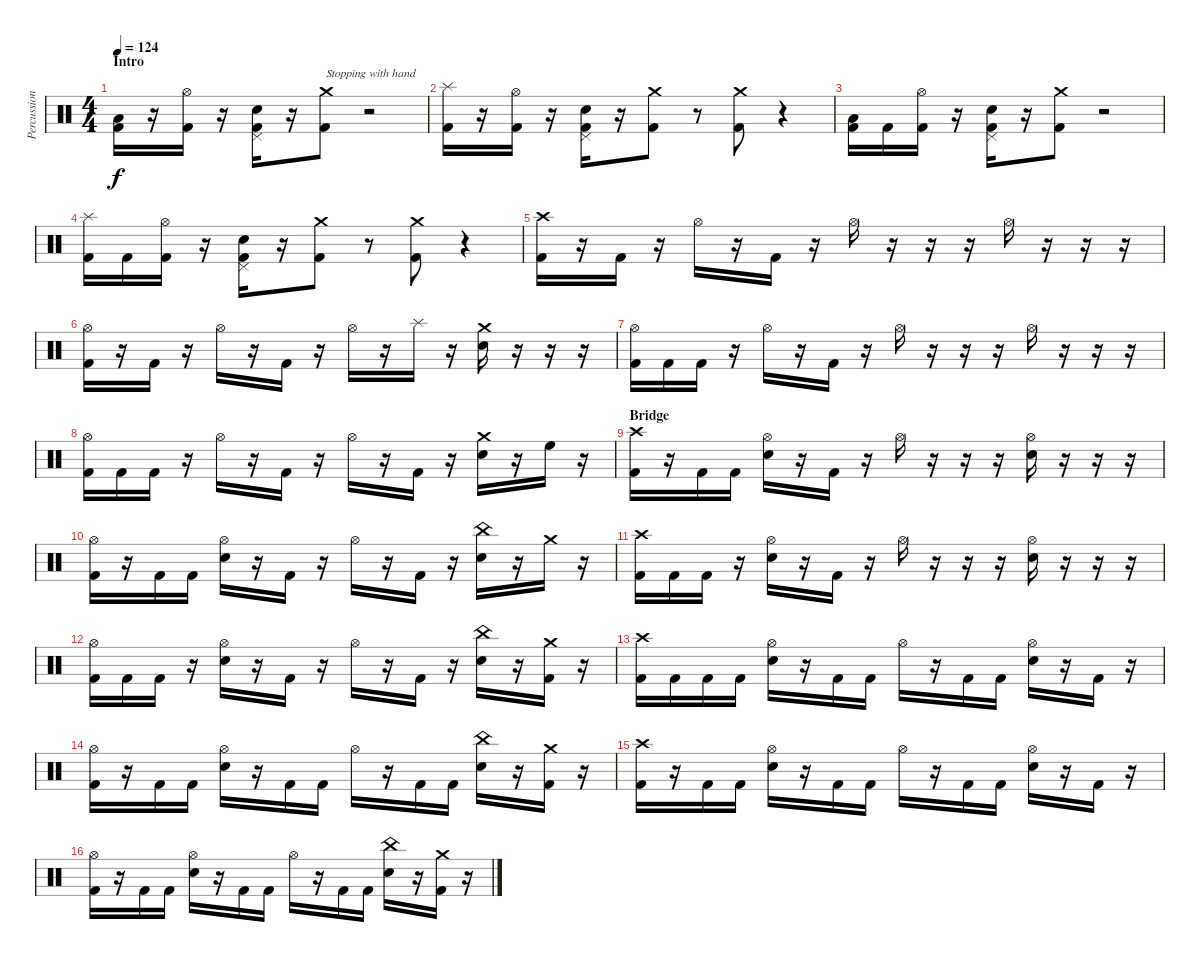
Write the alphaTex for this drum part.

\track ("Percussion" "Percussion") {instrument percussion}
\staff {score}
\articulation defaults
\ts (4 4)
\section ("" "Intro")
\tempo 124
\clef neutral
\ks c
("Low Tom (hit)" "Kick (hit) 2").16{dy f} r.16 ("Hi-Hat (open)" "Kick (hit) 2").16 r.16 ("Pedal Hi-Hat (hit)" "Snare (hit) 2" "Kick (hit) 2").16 r.16 ("Crash medium (hit)" "Kick (hit) 2").8{txt "Stopping with hand"} r.2{volume 0} |
("Splash (hit)" "Kick (hit) 2").16{volume 13} r.16 ("Hi-Hat (open)" "Kick (hit) 2").16 r.16 ("Pedal Hi-Hat (hit)" "Snare (hit) 2" "Kick (hit) 2").16 r.16 ("Crash medium (hit)" "Kick (hit) 2").8 r.8 ("Crash medium (hit)" "Kick (hit) 2").8 r.4{volume 0} |
("Low Tom (hit)" "Kick (hit) 2").16{volume 13} "Kick (hit) 2".16 ("Hi-Hat (open)" "Kick (hit) 2").16 r.16 ("Pedal Hi-Hat (hit)" "Snare (hit) 2" "Kick (hit) 2").16 r.16 ("Crash medium (hit)" "Kick (hit) 2").8 r.2{volume 0} |
("Splash (hit)" "Kick (hit) 2").16{volume 13} "Kick (hit) 2".16 ("Hi-Hat (open)" "Kick (hit) 2").16 r.16 ("Pedal Hi-Hat (hit)" "Snare (hit) 2" "Kick (hit) 2").16 r.16 ("Crash medium (hit)" "Kick (hit) 2").8 r.8 ("Crash medium (hit)" "Kick (hit) 2").8 r.4{volume 0} |
("Crash high (hit)" "Kick (hit) 2").16{volume 13} r.16 "Kick (hit) 2".16 r.16 "Hi-Hat (open)".16 r.16 "Kick (hit) 2".16 r.16 "Hi-Hat (open)".16 r.16 r.16 r.16 "Hi-Hat (open)".16 r.16 r.16 r.16 |
("Hi-Hat (open)" "Kick (hit) 2").16 r.16 "Kick (hit) 2".16 r.16 "Hi-Hat (open)".16 r.16 "Kick (hit) 2".16 r.16 "Hi-Hat (open)".16 r.16 "Splash (hit)".16 r.16 ("Crash medium (hit)" "Snare (hit) 2").16 r.16 r.16 r.16 |
("Hi-Hat (open)" "Kick (hit) 2").16 "Kick (hit) 2".16 "Kick (hit) 2".16 r.16 "Hi-Hat (open)".16 r.16 "Kick (hit) 2".16 r.16 "Hi-Hat (open)".16 r.16 r.16 r.16 "Hi-Hat (open)".16 r.16 r.16 r.16 |
("Hi-Hat (open)" "Kick (hit) 2").16 "Kick (hit) 2".16 "Kick (hit) 2".16 r.16 "Hi-Hat (open)".16 r.16 "Kick (hit) 2".16 r.16 "Hi-Hat (open)".16 r.16 "Kick (hit) 2".16 r.16 ("Crash medium (hit)" "Snare (hit) 2").16 r.16 "High Floor Tom (hit)".16 r.16 |
\section ("" "Bridge")
("Crash high (hit)" "Kick (hit) 2").16 r.16 "Kick (hit) 2".16 "Kick (hit) 2".16 ("Hi-Hat (open)" "Snare (hit) 2").16 r.16 "Kick (hit) 2".16 r.16 "Hi-Hat (open)".16 r.16 r.16 r.16 ("Hi-Hat (open)" "Snare (hit) 2").16 r.16 r.16 r.16 |
("Hi-Hat (open)" "Kick (hit) 2").16 r.16 "Kick (hit) 2".16 "Kick (hit) 2".16 ("Hi-Hat (open)" "Snare (hit) 2").16 r.16 "Kick (hit) 2".16 r.16 "Hi-Hat (open)".16 r.16 "Kick (hit) 2".16 r.16 ("China (hit)" "Snare (hit) 2").16 r.16 "Crash medium (hit)".16 r.16 |
("Crash high (hit)" "Kick (hit) 2").16 "Kick (hit) 2".16 "Kick (hit) 2".16 r.16 ("Hi-Hat (open)" "Snare (hit) 2").16 r.16 "Kick (hit) 2".16 r.16 "Hi-Hat (open)".16 r.16 r.16 r.16 ("Hi-Hat (open)" "Snare (hit) 2").16 r.16 r.16 r.16 |
("Hi-Hat (open)" "Kick (hit) 2").16 "Kick (hit) 2".16 "Kick (hit) 2".16 r.16 ("Hi-Hat (open)" "Snare (hit) 2").16 r.16 "Kick (hit) 2".16 r.16 "Hi-Hat (open)".16 r.16 "Kick (hit) 2".16 r.16 ("China (hit)" "Snare (hit) 2").16 r.16 ("Crash medium (hit)" "Kick (hit) 2").16 r.16 |
("Crash high (hit)" "Kick (hit) 2").16 "Kick (hit) 2".16 "Kick (hit) 2".16 "Kick (hit) 2".16 ("Hi-Hat (open)" "Snare (hit) 2").16 r.16 "Kick (hit) 2".16 "Kick (hit) 2".16 "Hi-Hat (open)".16 r.16 "Kick (hit) 2".16 "Kick (hit) 2".16 ("Hi-Hat (open)" "Snare (hit) 2").16 r.16 "Kick (hit) 2".16 r.16 |
("Hi-Hat (open)" "Kick (hit) 2").16 r.16 "Kick (hit) 2".16 "Kick (hit) 2".16 ("Hi-Hat (open)" "Snare (hit) 2").16 r.16 "Kick (hit) 2".16 "Kick (hit) 2".16 "Hi-Hat (open)".16 r.16 "Kick (hit) 2".16 "Kick (hit) 2".16 ("China (hit)" "Snare (hit) 2").16 r.16 ("Crash medium (hit)" "Kick (hit) 2").16 r.16 |
("Crash high (hit)" "Kick (hit) 2").16 r.16 "Kick (hit) 2".16 "Kick (hit) 2".16 ("Hi-Hat (open)" "Snare (hit) 2").16 r.16 "Kick (hit) 2".16 "Kick (hit) 2".16 "Hi-Hat (open)".16 r.16 "Kick (hit) 2".16 "Kick (hit) 2".16 ("Hi-Hat (open)" "Snare (hit) 2").16 r.16 "Kick (hit) 2".16 r.16 |
("Hi-Hat (open)" "Kick (hit) 2").16 r.16 "Kick (hit) 2".16 "Kick (hit) 2".16 ("Hi-Hat (open)" "Snare (hit) 2").16 r.16 "Kick (hit) 2".16 "Kick (hit) 2".16 "Hi-Hat (open)".16 r.16 "Kick (hit) 2".16 "Kick (hit) 2".16 ("China (hit)" "Snare (hit) 2").16 r.16 ("Crash medium (hit)" "Kick (hit) 2").16 r.16
